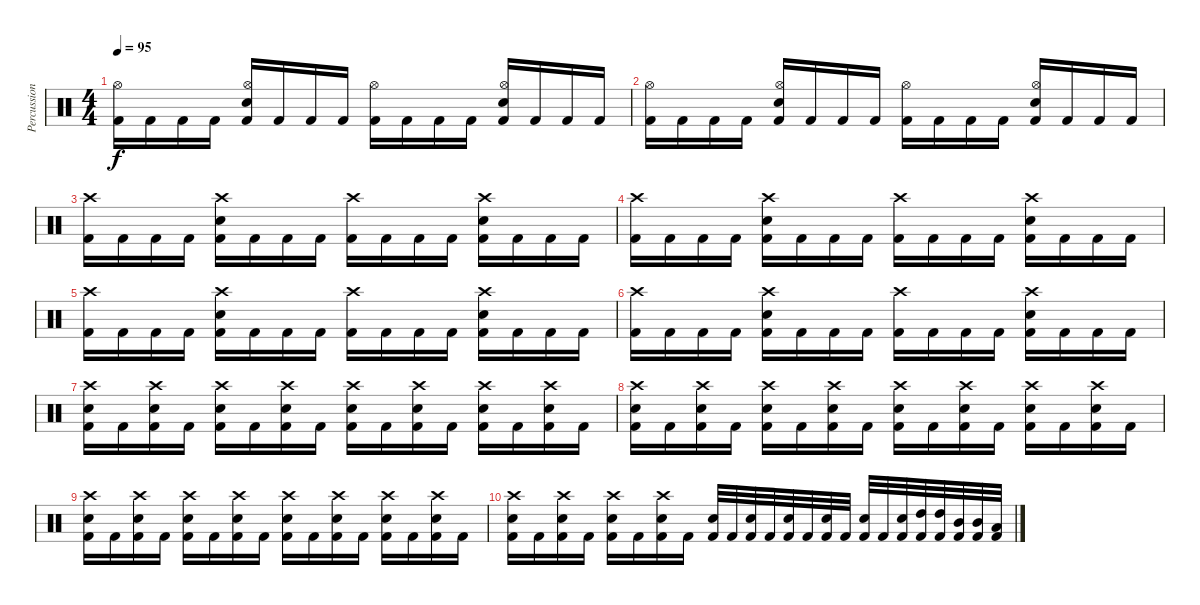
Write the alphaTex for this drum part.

\track ("Percussion" "Percussion") {instrument percussion}
\staff {score}
\articulation defaults
\ts (4 4)
\tempo 95
\clef neutral
\ks c
("Kick (hit) 2" "Hi-Hat (open)").16{dy f} "Kick (hit) 2".16 "Kick (hit) 2".16 "Kick (hit) 2".16 ("Kick (hit) 2" "Hi-Hat (open)" "Electric Snare (hit)").16 "Kick (hit) 2".16 "Kick (hit) 2".16 "Kick (hit) 2".16 ("Kick (hit) 2" "Hi-Hat (open)").16 "Kick (hit) 2".16 "Kick (hit) 2".16 "Kick (hit) 2".16 ("Kick (hit) 2" "Hi-Hat (open)" "Electric Snare (hit)").16 "Kick (hit) 2".16 "Kick (hit) 2".16 "Kick (hit) 2".16 |
("Kick (hit) 2" "Hi-Hat (open)").16 "Kick (hit) 2".16 "Kick (hit) 2".16 "Kick (hit) 2".16 ("Kick (hit) 2" "Hi-Hat (open)" "Electric Snare (hit)").16 "Kick (hit) 2".16 "Kick (hit) 2".16 "Kick (hit) 2".16 ("Kick (hit) 2" "Hi-Hat (open)").16 "Kick (hit) 2".16 "Kick (hit) 2".16 "Kick (hit) 2".16 ("Kick (hit) 2" "Hi-Hat (open)" "Electric Snare (hit)").16 "Kick (hit) 2".16 "Kick (hit) 2".16 "Kick (hit) 2".16 |
("Kick (hit) 2" "Crash high (hit)").16 "Kick (hit) 2".16 "Kick (hit) 2".16 "Kick (hit) 2".16 ("Kick (hit) 2" "Crash high (hit)" "Electric Snare (hit)").16 "Kick (hit) 2".16 "Kick (hit) 2".16 "Kick (hit) 2".16 ("Kick (hit) 2" "Crash high (hit)").16 "Kick (hit) 2".16 "Kick (hit) 2".16 "Kick (hit) 2".16 ("Kick (hit) 2" "Crash high (hit)" "Electric Snare (hit)").16 "Kick (hit) 2".16 "Kick (hit) 2".16 "Kick (hit) 2".16 |
("Kick (hit) 2" "Crash high (hit)").16 "Kick (hit) 2".16 "Kick (hit) 2".16 "Kick (hit) 2".16 ("Kick (hit) 2" "Crash high (hit)" "Electric Snare (hit)").16 "Kick (hit) 2".16 "Kick (hit) 2".16 "Kick (hit) 2".16 ("Kick (hit) 2" "Crash high (hit)").16 "Kick (hit) 2".16 "Kick (hit) 2".16 "Kick (hit) 2".16 ("Kick (hit) 2" "Crash high (hit)" "Electric Snare (hit)").16 "Kick (hit) 2".16 "Kick (hit) 2".16 "Kick (hit) 2".16 |
("Kick (hit) 2" "Crash high (hit)").16 "Kick (hit) 2".16 "Kick (hit) 2".16 "Kick (hit) 2".16 ("Kick (hit) 2" "Crash high (hit)" "Electric Snare (hit)").16 "Kick (hit) 2".16 "Kick (hit) 2".16 "Kick (hit) 2".16 ("Kick (hit) 2" "Crash high (hit)").16 "Kick (hit) 2".16 "Kick (hit) 2".16 "Kick (hit) 2".16 ("Kick (hit) 2" "Crash high (hit)" "Electric Snare (hit)").16 "Kick (hit) 2".16 "Kick (hit) 2".16 "Kick (hit) 2".16 |
("Kick (hit) 2" "Crash high (hit)").16 "Kick (hit) 2".16 "Kick (hit) 2".16 "Kick (hit) 2".16 ("Kick (hit) 2" "Crash high (hit)" "Electric Snare (hit)").16 "Kick (hit) 2".16 "Kick (hit) 2".16 "Kick (hit) 2".16 ("Kick (hit) 2" "Crash high (hit)").16 "Kick (hit) 2".16 "Kick (hit) 2".16 "Kick (hit) 2".16 ("Kick (hit) 2" "Crash high (hit)" "Electric Snare (hit)").16 "Kick (hit) 2".16 "Kick (hit) 2".16 "Kick (hit) 2".16 |
("Kick (hit) 2" "Crash high (hit)" "Electric Snare (hit)").16 "Kick (hit) 2".16 ("Kick (hit) 2" "Crash high (hit)" "Electric Snare (hit)").16 "Kick (hit) 2".16 ("Kick (hit) 2" "Crash high (hit)" "Electric Snare (hit)").16 "Kick (hit) 2".16 ("Kick (hit) 2" "Crash high (hit)" "Electric Snare (hit)").16 "Kick (hit) 2".16 ("Kick (hit) 2" "Crash high (hit)" "Electric Snare (hit)").16 "Kick (hit) 2".16 ("Kick (hit) 2" "Crash high (hit)" "Electric Snare (hit)").16 "Kick (hit) 2".16 ("Kick (hit) 2" "Crash high (hit)" "Electric Snare (hit)").16 "Kick (hit) 2".16 ("Kick (hit) 2" "Crash high (hit)" "Electric Snare (hit)").16 "Kick (hit) 2".16 |
("Kick (hit) 2" "Crash high (hit)" "Electric Snare (hit)").16 "Kick (hit) 2".16 ("Kick (hit) 2" "Crash high (hit)" "Electric Snare (hit)").16 "Kick (hit) 2".16 ("Kick (hit) 2" "Crash high (hit)" "Electric Snare (hit)").16 "Kick (hit) 2".16 ("Kick (hit) 2" "Crash high (hit)" "Electric Snare (hit)").16 "Kick (hit) 2".16 ("Kick (hit) 2" "Crash high (hit)" "Electric Snare (hit)").16 "Kick (hit) 2".16 ("Kick (hit) 2" "Crash high (hit)" "Electric Snare (hit)").16 "Kick (hit) 2".16 ("Kick (hit) 2" "Crash high (hit)" "Electric Snare (hit)").16 "Kick (hit) 2".16 ("Kick (hit) 2" "Crash high (hit)" "Electric Snare (hit)").16 "Kick (hit) 2".16 |
("Kick (hit) 2" "Crash high (hit)" "Electric Snare (hit)").16 "Kick (hit) 2".16 ("Kick (hit) 2" "Crash high (hit)" "Electric Snare (hit)").16 "Kick (hit) 2".16 ("Kick (hit) 2" "Crash high (hit)" "Electric Snare (hit)").16 "Kick (hit) 2".16 ("Kick (hit) 2" "Crash high (hit)" "Electric Snare (hit)").16 "Kick (hit) 2".16 ("Kick (hit) 2" "Crash high (hit)" "Electric Snare (hit)").16 "Kick (hit) 2".16 ("Kick (hit) 2" "Crash high (hit)" "Electric Snare (hit)").16 "Kick (hit) 2".16 ("Kick (hit) 2" "Crash high (hit)" "Electric Snare (hit)").16 "Kick (hit) 2".16 ("Kick (hit) 2" "Crash high (hit)" "Electric Snare (hit)").16 "Kick (hit) 2".16 |
("Kick (hit) 2" "Crash high (hit)" "Electric Snare (hit)").16 "Kick (hit) 2".16 ("Kick (hit) 2" "Crash high (hit)" "Electric Snare (hit)").16 "Kick (hit) 2".16 ("Kick (hit) 2" "Crash high (hit)" "Electric Snare (hit)").16 "Kick (hit) 2".16 ("Kick (hit) 2" "Crash high (hit)" "Electric Snare (hit)").16 "Kick (hit) 2".16 ("Kick (hit) 2" "Electric Snare (hit)").32 "Kick (hit) 2".32 ("Kick (hit) 2" "Electric Snare (hit)").32 "Kick (hit) 2".32 ("Kick (hit) 2" "Electric Snare (hit)").32 "Kick (hit) 2".32 ("Kick (hit) 2" "Electric Snare (hit)").32 "Kick (hit) 2".32 ("Kick (hit) 2" "Electric Snare (hit)").32 "Kick (hit) 2".32 ("Kick (hit) 2" "Electric Snare (hit)").32 ("Kick (hit) 2" "High Tom (hit)").32 ("Kick (hit) 2" "High Tom (hit)").32 ("Kick (hit) 2" "Mid Tom (hit)").32 ("Kick (hit) 2" "Mid Tom (hit)").32 ("Kick (hit) 2" "Low Tom (hit)").32
